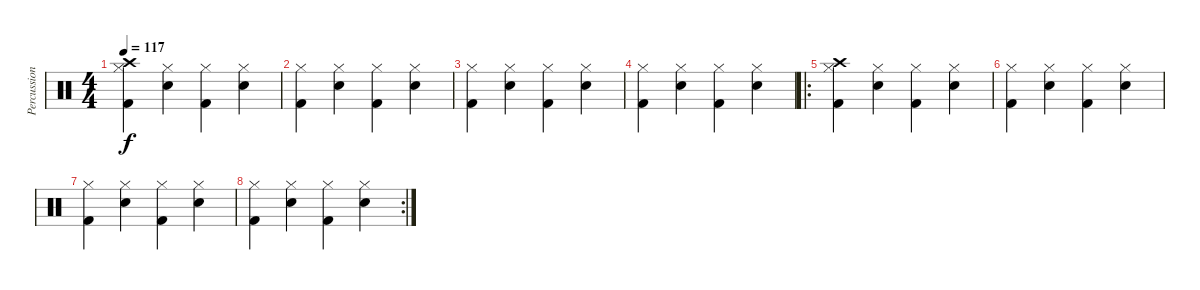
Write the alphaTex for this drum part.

\track ("Percussion" "Percussion") {instrument percussion}
\staff {score}
\articulation defaults
\ts (4 4)
\tempo 117
\clef neutral
\ks c
("Hi-Hat (closed)" "Crash high (hit)" "Kick (hit) 2").4{dy f} ("Hi-Hat (closed)" "Metronome (bell)").4 ("Hi-Hat (closed)" "Kick (hit) 2").4 ("Hi-Hat (closed)" "Metronome (bell)").4 |
("Hi-Hat (closed)" "Kick (hit) 2").4 ("Hi-Hat (closed)" "Metronome (bell)").4 ("Hi-Hat (closed)" "Kick (hit) 2").4 ("Hi-Hat (closed)" "Metronome (bell)").4 |
("Hi-Hat (closed)" "Kick (hit) 2").4 ("Hi-Hat (closed)" "Metronome (bell)").4 ("Hi-Hat (closed)" "Kick (hit) 2").4 ("Hi-Hat (closed)" "Metronome (bell)").4 |
("Hi-Hat (closed)" "Kick (hit) 2").4 ("Hi-Hat (closed)" "Metronome (bell)").4 ("Hi-Hat (closed)" "Kick (hit) 2").4 ("Hi-Hat (closed)" "Metronome (bell)").4 |
\ro
("Hi-Hat (closed)" "Crash high (hit)" "Kick (hit) 2").4 ("Hi-Hat (closed)" "Metronome (bell)").4 ("Hi-Hat (closed)" "Kick (hit) 2").4 ("Hi-Hat (closed)" "Metronome (bell)").4 |
("Hi-Hat (closed)" "Kick (hit) 2").4 ("Hi-Hat (closed)" "Metronome (bell)").4 ("Hi-Hat (closed)" "Kick (hit) 2").4 ("Hi-Hat (closed)" "Metronome (bell)").4 |
("Hi-Hat (closed)" "Kick (hit) 2").4 ("Hi-Hat (closed)" "Metronome (bell)").4 ("Hi-Hat (closed)" "Kick (hit) 2").4 ("Hi-Hat (closed)" "Metronome (bell)").4 |
\rc 2
("Hi-Hat (closed)" "Kick (hit) 2").4 ("Hi-Hat (closed)" "Metronome (bell)").4 ("Hi-Hat (closed)" "Kick (hit) 2").4 ("Hi-Hat (closed)" "Metronome (bell)").4
